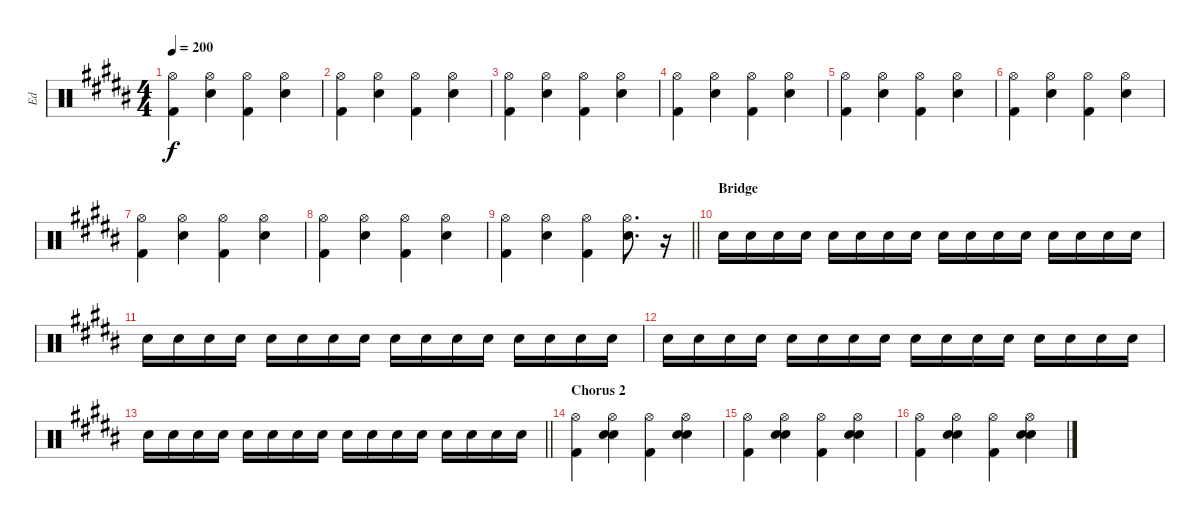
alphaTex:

\track ("Ed" "Ed") {instrument percussion bank 127}
\staff {score}
\articulation defaults
\ts (4 4)
\tempo 200
\clef neutral
\ks g#minor
("Hi-Hat (open)" "Kick (hit) 2").4{dy f} ("Hi-Hat (open)" "Electric Snare (hit)").4 ("Hi-Hat (open)" "Kick (hit) 2").4 ("Hi-Hat (open)" "Electric Snare (hit)").4 |
("Hi-Hat (open)" "Kick (hit) 2").4 ("Hi-Hat (open)" "Electric Snare (hit)").4 ("Hi-Hat (open)" "Kick (hit) 2").4 ("Hi-Hat (open)" "Electric Snare (hit)").4 |
("Hi-Hat (open)" "Kick (hit) 2").4 ("Hi-Hat (open)" "Electric Snare (hit)").4 ("Hi-Hat (open)" "Kick (hit) 2").4 ("Hi-Hat (open)" "Electric Snare (hit)").4 |
("Hi-Hat (open)" "Kick (hit) 2").4 ("Hi-Hat (open)" "Electric Snare (hit)").4 ("Hi-Hat (open)" "Kick (hit) 2").4 ("Hi-Hat (open)" "Electric Snare (hit)").4 |
("Hi-Hat (open)" "Kick (hit) 2").4 ("Hi-Hat (open)" "Electric Snare (hit)").4 ("Hi-Hat (open)" "Kick (hit) 2").4 ("Hi-Hat (open)" "Electric Snare (hit)").4 |
("Hi-Hat (open)" "Kick (hit) 2").4 ("Hi-Hat (open)" "Electric Snare (hit)").4 ("Hi-Hat (open)" "Kick (hit) 2").4 ("Hi-Hat (open)" "Electric Snare (hit)").4 |
("Hi-Hat (open)" "Kick (hit) 2").4 ("Hi-Hat (open)" "Electric Snare (hit)").4 ("Hi-Hat (open)" "Kick (hit) 2").4 ("Hi-Hat (open)" "Electric Snare (hit)").4 |
("Hi-Hat (open)" "Kick (hit) 2").4 ("Hi-Hat (open)" "Electric Snare (hit)").4 ("Hi-Hat (open)" "Kick (hit) 2").4 ("Hi-Hat (open)" "Electric Snare (hit)").4 |
\barLineRight lightlight
("Hi-Hat (open)" "Kick (hit) 2").4 ("Hi-Hat (open)" "Electric Snare (hit)").4 ("Hi-Hat (open)" "Kick (hit) 2").4 ("Hi-Hat (open)" "Electric Snare (hit)").8{d} r.16{volume 2} |
\section ("" "Bridge")
"Electric Snare (hit)".16{volume 13} "Electric Snare (hit)".16 "Electric Snare (hit)".16 "Electric Snare (hit)".16 "Electric Snare (hit)".16 "Electric Snare (hit)".16 "Electric Snare (hit)".16 "Electric Snare (hit)".16 "Electric Snare (hit)".16 "Electric Snare (hit)".16 "Electric Snare (hit)".16 "Electric Snare (hit)".16 "Electric Snare (hit)".16 "Electric Snare (hit)".16 "Electric Snare (hit)".16 "Electric Snare (hit)".16 |
"Electric Snare (hit)".16 "Electric Snare (hit)".16 "Electric Snare (hit)".16 "Electric Snare (hit)".16 "Electric Snare (hit)".16 "Electric Snare (hit)".16 "Electric Snare (hit)".16 "Electric Snare (hit)".16 "Electric Snare (hit)".16 "Electric Snare (hit)".16 "Electric Snare (hit)".16 "Electric Snare (hit)".16 "Electric Snare (hit)".16 "Electric Snare (hit)".16 "Electric Snare (hit)".16 "Electric Snare (hit)".16 |
"Electric Snare (hit)".16 "Electric Snare (hit)".16 "Electric Snare (hit)".16 "Electric Snare (hit)".16 "Electric Snare (hit)".16 "Electric Snare (hit)".16 "Electric Snare (hit)".16 "Electric Snare (hit)".16 "Electric Snare (hit)".16 "Electric Snare (hit)".16 "Electric Snare (hit)".16 "Electric Snare (hit)".16 "Electric Snare (hit)".16 "Electric Snare (hit)".16 "Electric Snare (hit)".16 "Electric Snare (hit)".16 |
\barLineRight lightlight "Electric Snare (hit)".16 "Electric Snare (hit)".16 "Electric Snare (hit)".16 "Electric Snare (hit)".16 "Electric Snare (hit)".16 "Electric Snare (hit)".16 "Electric Snare (hit)".16 "Electric Snare (hit)".16 "Electric Snare (hit)".16 "Electric Snare (hit)".16 "Electric Snare (hit)".16 "Electric Snare (hit)".16 "Electric Snare (hit)".16 "Electric Snare (hit)".16 "Electric Snare (hit)".16 "Electric Snare (hit)".16
|
\section ("" "Chorus 2")
("Hi-Hat (open)" "Kick (hit) 2").4{volume 9} ("Hi-Hat (open)" "Electric Snare (hit)" "Electric Snare (hit)").4 ("Hi-Hat (open)" "Kick (hit) 2").4 ("Hi-Hat (open)" "Electric Snare (hit)" "Electric Snare (hit)").4 |
("Hi-Hat (open)" "Kick (hit) 2").4 ("Hi-Hat (open)" "Electric Snare (hit)" "Electric Snare (hit)").4 ("Hi-Hat (open)" "Kick (hit) 2").4 ("Hi-Hat (open)" "Electric Snare (hit)" "Electric Snare (hit)").4 |
("Hi-Hat (open)" "Kick (hit) 2").4 ("Hi-Hat (open)" "Electric Snare (hit)" "Electric Snare (hit)").4 ("Hi-Hat (open)" "Kick (hit) 2").4 ("Hi-Hat (open)" "Electric Snare (hit)" "Electric Snare (hit)").4
